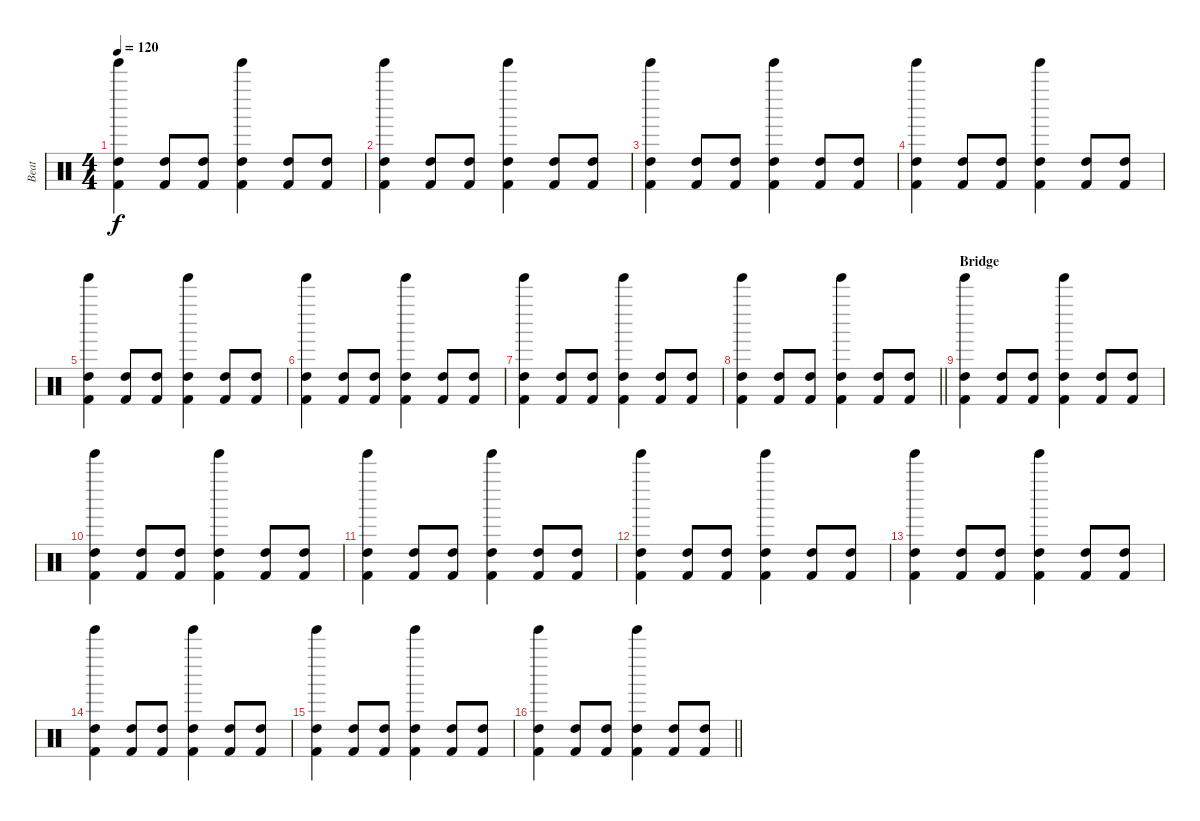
\track ("Beat" "Beat") {instrument percussion}
\staff {score}
\articulation defaults
\ts (4 4)
\tempo 120
\clef neutral
\ks c
("High Tom (hit)" "Kick (hit) 2" "Tinkle Bell (hit)").4{dy f} ("High Tom (hit)" "Kick (hit) 2").8 ("High Tom (hit)" "Kick (hit) 2").8 ("High Tom (hit)" "Kick (hit) 2" "Tinkle Bell (hit)").4 ("High Tom (hit)" "Kick (hit) 2").8 ("High Tom (hit)" "Kick (hit) 2").8 |
("High Tom (hit)" "Kick (hit) 2" "Tinkle Bell (hit)").4 ("High Tom (hit)" "Kick (hit) 2").8 ("High Tom (hit)" "Kick (hit) 2").8 ("High Tom (hit)" "Kick (hit) 2" "Tinkle Bell (hit)").4 ("High Tom (hit)" "Kick (hit) 2").8 ("High Tom (hit)" "Kick (hit) 2").8 |
("High Tom (hit)" "Kick (hit) 2" "Tinkle Bell (hit)").4 ("High Tom (hit)" "Kick (hit) 2").8 ("High Tom (hit)" "Kick (hit) 2").8 ("High Tom (hit)" "Kick (hit) 2" "Tinkle Bell (hit)").4 ("High Tom (hit)" "Kick (hit) 2").8 ("High Tom (hit)" "Kick (hit) 2").8 |
("High Tom (hit)" "Kick (hit) 2" "Tinkle Bell (hit)").4 ("High Tom (hit)" "Kick (hit) 2").8 ("High Tom (hit)" "Kick (hit) 2").8 ("High Tom (hit)" "Kick (hit) 2" "Tinkle Bell (hit)").4 ("High Tom (hit)" "Kick (hit) 2").8 ("High Tom (hit)" "Kick (hit) 2").8 |
("High Tom (hit)" "Kick (hit) 2" "Tinkle Bell (hit)").4 ("High Tom (hit)" "Kick (hit) 2").8 ("High Tom (hit)" "Kick (hit) 2").8 ("High Tom (hit)" "Kick (hit) 2" "Tinkle Bell (hit)").4 ("High Tom (hit)" "Kick (hit) 2").8 ("High Tom (hit)" "Kick (hit) 2").8 |
("High Tom (hit)" "Kick (hit) 2" "Tinkle Bell (hit)").4 ("High Tom (hit)" "Kick (hit) 2").8 ("High Tom (hit)" "Kick (hit) 2").8 ("High Tom (hit)" "Kick (hit) 2" "Tinkle Bell (hit)").4 ("High Tom (hit)" "Kick (hit) 2").8 ("High Tom (hit)" "Kick (hit) 2").8 |
("High Tom (hit)" "Kick (hit) 2" "Tinkle Bell (hit)").4 ("High Tom (hit)" "Kick (hit) 2").8 ("High Tom (hit)" "Kick (hit) 2").8 ("High Tom (hit)" "Kick (hit) 2" "Tinkle Bell (hit)").4 ("High Tom (hit)" "Kick (hit) 2").8 ("High Tom (hit)" "Kick (hit) 2").8 |
\barLineRight lightlight
("High Tom (hit)" "Kick (hit) 2" "Tinkle Bell (hit)").4 ("High Tom (hit)" "Kick (hit) 2").8 ("High Tom (hit)" "Kick (hit) 2").8 ("High Tom (hit)" "Kick (hit) 2" "Tinkle Bell (hit)").4 ("High Tom (hit)" "Kick (hit) 2").8 ("High Tom (hit)" "Kick (hit) 2").8 |
\section ("" "Bridge")
("High Tom (hit)" "Kick (hit) 2" "Tinkle Bell (hit)").4 ("High Tom (hit)" "Kick (hit) 2").8 ("High Tom (hit)" "Kick (hit) 2").8 ("High Tom (hit)" "Kick (hit) 2" "Tinkle Bell (hit)").4 ("High Tom (hit)" "Kick (hit) 2").8 ("High Tom (hit)" "Kick (hit) 2").8 |
("High Tom (hit)" "Kick (hit) 2" "Tinkle Bell (hit)").4 ("High Tom (hit)" "Kick (hit) 2").8 ("High Tom (hit)" "Kick (hit) 2").8 ("High Tom (hit)" "Kick (hit) 2" "Tinkle Bell (hit)").4 ("High Tom (hit)" "Kick (hit) 2").8 ("High Tom (hit)" "Kick (hit) 2").8 |
("High Tom (hit)" "Kick (hit) 2" "Tinkle Bell (hit)").4 ("High Tom (hit)" "Kick (hit) 2").8 ("High Tom (hit)" "Kick (hit) 2").8 ("High Tom (hit)" "Kick (hit) 2" "Tinkle Bell (hit)").4 ("High Tom (hit)" "Kick (hit) 2").8 ("High Tom (hit)" "Kick (hit) 2").8 |
("High Tom (hit)" "Kick (hit) 2" "Tinkle Bell (hit)").4 ("High Tom (hit)" "Kick (hit) 2").8 ("High Tom (hit)" "Kick (hit) 2").8 ("High Tom (hit)" "Kick (hit) 2" "Tinkle Bell (hit)").4 ("High Tom (hit)" "Kick (hit) 2").8 ("High Tom (hit)" "Kick (hit) 2").8 |
("High Tom (hit)" "Kick (hit) 2" "Tinkle Bell (hit)").4 ("High Tom (hit)" "Kick (hit) 2").8 ("High Tom (hit)" "Kick (hit) 2").8 ("High Tom (hit)" "Kick (hit) 2" "Tinkle Bell (hit)").4 ("High Tom (hit)" "Kick (hit) 2").8 ("High Tom (hit)" "Kick (hit) 2").8 |
("High Tom (hit)" "Kick (hit) 2" "Tinkle Bell (hit)").4 ("High Tom (hit)" "Kick (hit) 2").8 ("High Tom (hit)" "Kick (hit) 2").8 ("High Tom (hit)" "Kick (hit) 2" "Tinkle Bell (hit)").4 ("High Tom (hit)" "Kick (hit) 2").8 ("High Tom (hit)" "Kick (hit) 2").8 |
("High Tom (hit)" "Kick (hit) 2" "Tinkle Bell (hit)").4 ("High Tom (hit)" "Kick (hit) 2").8 ("High Tom (hit)" "Kick (hit) 2").8 ("High Tom (hit)" "Kick (hit) 2" "Tinkle Bell (hit)").4 ("High Tom (hit)" "Kick (hit) 2").8 ("High Tom (hit)" "Kick (hit) 2").8 |
\barLineRight lightlight
("High Tom (hit)" "Kick (hit) 2" "Tinkle Bell (hit)").4 ("High Tom (hit)" "Kick (hit) 2").8 ("High Tom (hit)" "Kick (hit) 2").8 ("High Tom (hit)" "Kick (hit) 2" "Tinkle Bell (hit)").4 ("High Tom (hit)" "Kick (hit) 2").8 ("High Tom (hit)" "Kick (hit) 2").8
